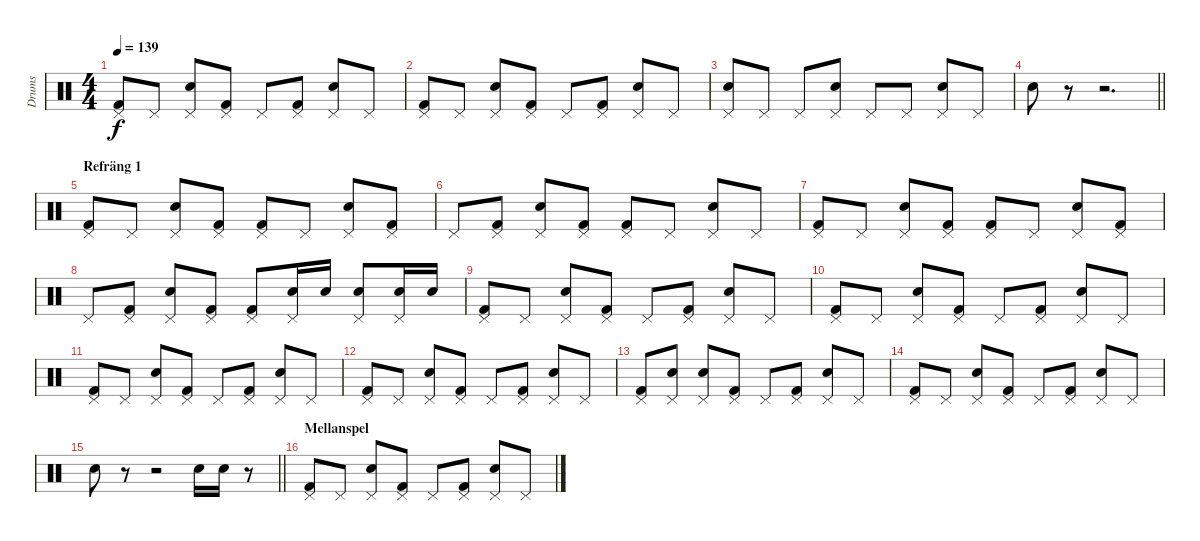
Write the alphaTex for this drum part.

\track ("Drums" "Drums") {instrument percussion}
\staff {score}
\articulation defaults
\ts (4 4)
\tempo 139
\clef neutral
\ks c
("Pedal Hi-Hat (hit)" "Kick (hit) 2").8{dy f} "Pedal Hi-Hat (hit)".8 ("Pedal Hi-Hat (hit)" "Snare (hit) 2").8 ("Pedal Hi-Hat (hit)" "Kick (hit) 2").8 "Pedal Hi-Hat (hit)".8 ("Pedal Hi-Hat (hit)" "Kick (hit) 2").8 ("Pedal Hi-Hat (hit)" "Snare (hit) 2").8 "Pedal Hi-Hat (hit)".8 |
("Pedal Hi-Hat (hit)" "Kick (hit) 2").8 "Pedal Hi-Hat (hit)".8 ("Pedal Hi-Hat (hit)" "Snare (hit) 2").8 ("Pedal Hi-Hat (hit)" "Kick (hit) 2").8 "Pedal Hi-Hat (hit)".8 ("Pedal Hi-Hat (hit)" "Kick (hit) 2").8 ("Pedal Hi-Hat (hit)" "Snare (hit) 2").8 "Pedal Hi-Hat (hit)".8 |
("Pedal Hi-Hat (hit)" "Snare (hit) 2").8 "Pedal Hi-Hat (hit)".8 "Pedal Hi-Hat (hit)".8 ("Pedal Hi-Hat (hit)" "Snare (hit) 2").8 "Pedal Hi-Hat (hit)".8 "Pedal Hi-Hat (hit)".8 ("Pedal Hi-Hat (hit)" "Snare (hit) 2").8 "Pedal Hi-Hat (hit)".8 |
\barLineRight lightlight "Snare (hit) 2".8
r.8 r.2{d} |
\section ("" "Refräng 1")
("Pedal Hi-Hat (hit)" "Kick (hit) 2").8 "Pedal Hi-Hat (hit)".8 ("Pedal Hi-Hat (hit)" "Snare (hit) 2").8 ("Pedal Hi-Hat (hit)" "Kick (hit) 2").8 ("Pedal Hi-Hat (hit)" "Kick (hit) 2").8 "Pedal Hi-Hat (hit)".8 ("Pedal Hi-Hat (hit)" "Snare (hit) 2").8 ("Pedal Hi-Hat (hit)" "Kick (hit) 2").8 |
"Pedal Hi-Hat (hit)".8 ("Pedal Hi-Hat (hit)" "Kick (hit) 2").8 ("Pedal Hi-Hat (hit)" "Snare (hit) 2").8 ("Pedal Hi-Hat (hit)" "Kick (hit) 2").8 ("Pedal Hi-Hat (hit)" "Kick (hit) 2").8 "Pedal Hi-Hat (hit)".8 ("Pedal Hi-Hat (hit)" "Snare (hit) 2").8 "Pedal Hi-Hat (hit)".8 |
("Pedal Hi-Hat (hit)" "Kick (hit) 2").8 "Pedal Hi-Hat (hit)".8 ("Pedal Hi-Hat (hit)" "Snare (hit) 2").8 ("Pedal Hi-Hat (hit)" "Kick (hit) 2").8 ("Pedal Hi-Hat (hit)" "Kick (hit) 2").8 "Pedal Hi-Hat (hit)".8 ("Pedal Hi-Hat (hit)" "Snare (hit) 2").8 ("Pedal Hi-Hat (hit)" "Kick (hit) 2").8 |
"Pedal Hi-Hat (hit)".8 ("Pedal Hi-Hat (hit)" "Kick (hit) 2").8 ("Pedal Hi-Hat (hit)" "Snare (hit) 2").8 ("Pedal Hi-Hat (hit)" "Kick (hit) 2").8 ("Pedal Hi-Hat (hit)" "Kick (hit) 2").8 ("Pedal Hi-Hat (hit)" "Snare (hit) 2").16 "Snare (hit) 2".16 ("Pedal Hi-Hat (hit)" "Snare (hit) 2").8 ("Pedal Hi-Hat (hit)" "Snare (hit) 2").16 "Snare (hit) 2".16 |
("Pedal Hi-Hat (hit)" "Kick (hit) 2").8 "Pedal Hi-Hat (hit)".8 ("Pedal Hi-Hat (hit)" "Snare (hit) 2").8 ("Pedal Hi-Hat (hit)" "Kick (hit) 2").8 "Pedal Hi-Hat (hit)".8 ("Pedal Hi-Hat (hit)" "Kick (hit) 2").8 ("Pedal Hi-Hat (hit)" "Snare (hit) 2").8 "Pedal Hi-Hat (hit)".8 |
("Pedal Hi-Hat (hit)" "Kick (hit) 2").8 "Pedal Hi-Hat (hit)".8 ("Pedal Hi-Hat (hit)" "Snare (hit) 2").8 ("Pedal Hi-Hat (hit)" "Kick (hit) 2").8 "Pedal Hi-Hat (hit)".8 ("Pedal Hi-Hat (hit)" "Kick (hit) 2").8 ("Pedal Hi-Hat (hit)" "Snare (hit) 2").8 "Pedal Hi-Hat (hit)".8 |
("Pedal Hi-Hat (hit)" "Kick (hit) 2").8 "Pedal Hi-Hat (hit)".8 ("Pedal Hi-Hat (hit)" "Snare (hit) 2").8 ("Pedal Hi-Hat (hit)" "Kick (hit) 2").8 "Pedal Hi-Hat (hit)".8 ("Pedal Hi-Hat (hit)" "Kick (hit) 2").8 ("Pedal Hi-Hat (hit)" "Snare (hit) 2").8 "Pedal Hi-Hat (hit)".8 |
("Pedal Hi-Hat (hit)" "Kick (hit) 2").8 "Pedal Hi-Hat (hit)".8 ("Pedal Hi-Hat (hit)" "Snare (hit) 2").8 ("Pedal Hi-Hat (hit)" "Kick (hit) 2").8 "Pedal Hi-Hat (hit)".8 ("Pedal Hi-Hat (hit)" "Kick (hit) 2").8 ("Pedal Hi-Hat (hit)" "Snare (hit) 2").8 "Pedal Hi-Hat (hit)".8 |
("Pedal Hi-Hat (hit)" "Kick (hit) 2").8 ("Pedal Hi-Hat (hit)" "Snare (hit) 2").8 ("Pedal Hi-Hat (hit)" "Snare (hit) 2").8 ("Pedal Hi-Hat (hit)" "Kick (hit) 2").8 "Pedal Hi-Hat (hit)".8 ("Pedal Hi-Hat (hit)" "Kick (hit) 2").8 ("Pedal Hi-Hat (hit)" "Snare (hit) 2").8 "Pedal Hi-Hat (hit)".8 |
("Pedal Hi-Hat (hit)" "Kick (hit) 2").8 "Pedal Hi-Hat (hit)".8 ("Pedal Hi-Hat (hit)" "Snare (hit) 2").8 ("Pedal Hi-Hat (hit)" "Kick (hit) 2").8 "Pedal Hi-Hat (hit)".8 ("Pedal Hi-Hat (hit)" "Kick (hit) 2").8 ("Pedal Hi-Hat (hit)" "Snare (hit) 2").8 "Pedal Hi-Hat (hit)".8 |
\barLineRight lightlight "Snare (hit) 2".8
r.8 r.2 "Snare (hit) 2".16 "Snare (hit) 2".16 r.8 |
\section ("" "Mellanspel")
("Pedal Hi-Hat (hit)" "Kick (hit) 2").8 "Pedal Hi-Hat (hit)".8 ("Pedal Hi-Hat (hit)" "Snare (hit) 2").8 ("Pedal Hi-Hat (hit)" "Kick (hit) 2").8 "Pedal Hi-Hat (hit)".8 ("Pedal Hi-Hat (hit)" "Kick (hit) 2").8 ("Pedal Hi-Hat (hit)" "Snare (hit) 2").8 "Pedal Hi-Hat (hit)".8
